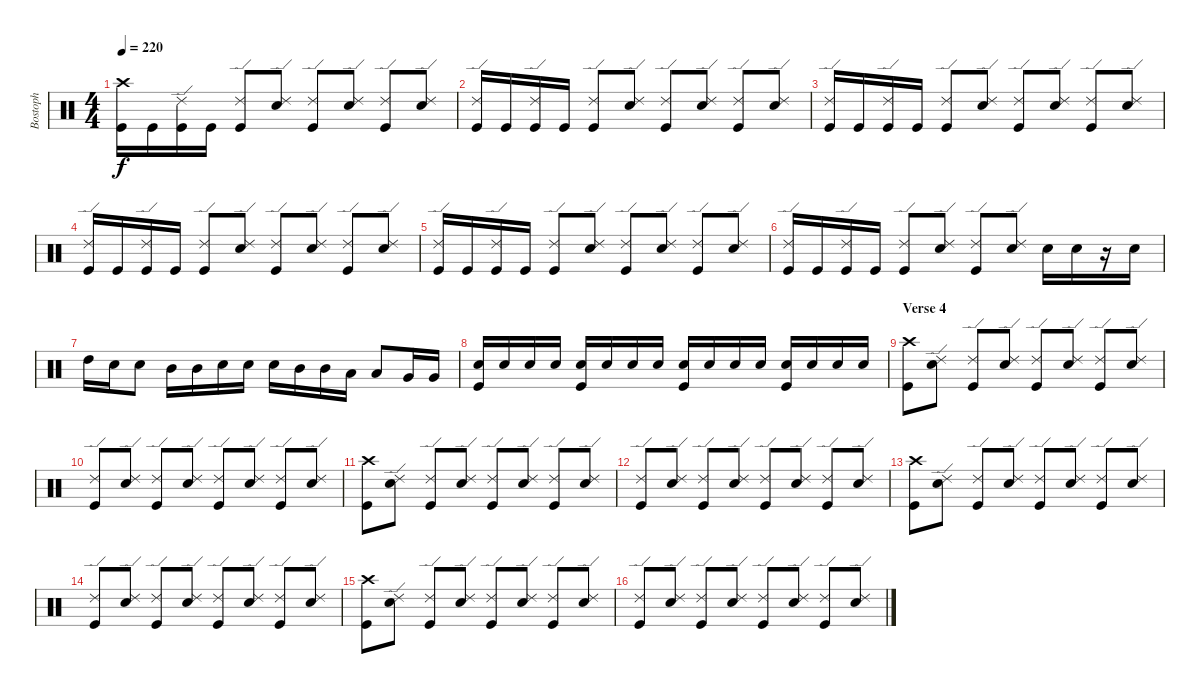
\track ("Bostoph" "Bostoph") {instrument percussion}
\staff {score}
\articulation defaults
\ts (4 4)
\tempo 220
\clef neutral
\ks c
("Crash high (hit)" "Kick (hit)").16{dy f} "Kick (hit)".16 ("Ride (edge) 2" "Kick (hit)").16 "Kick (hit)".16 ("Ride (edge) 2" "Kick (hit)").8 ("Ride (edge) 2" "Snare (hit) 2").8 ("Ride (edge) 2" "Kick (hit)").8 ("Ride (edge) 2" "Snare (hit) 2").8 ("Ride (edge) 2" "Kick (hit)").8 ("Ride (edge) 2" "Snare (hit) 2").8 |
("Ride (edge) 2" "Kick (hit)").16 "Kick (hit)".16 ("Ride (edge) 2" "Kick (hit)").16 "Kick (hit)".16 ("Ride (edge) 2" "Kick (hit)").8 ("Ride (edge) 2" "Snare (hit) 2").8 ("Ride (edge) 2" "Kick (hit)").8 ("Ride (edge) 2" "Snare (hit) 2").8 ("Ride (edge) 2" "Kick (hit)").8 ("Ride (edge) 2" "Snare (hit) 2").8 |
("Ride (edge) 2" "Kick (hit)").16 "Kick (hit)".16 ("Ride (edge) 2" "Kick (hit)").16 "Kick (hit)".16 ("Ride (edge) 2" "Kick (hit)").8 ("Ride (edge) 2" "Snare (hit) 2").8 ("Ride (edge) 2" "Kick (hit)").8 ("Ride (edge) 2" "Snare (hit) 2").8 ("Ride (edge) 2" "Kick (hit)").8 ("Ride (edge) 2" "Snare (hit) 2").8 |
("Ride (edge) 2" "Kick (hit)").16 "Kick (hit)".16 ("Ride (edge) 2" "Kick (hit)").16 "Kick (hit)".16 ("Ride (edge) 2" "Kick (hit)").8 ("Ride (edge) 2" "Snare (hit) 2").8 ("Ride (edge) 2" "Kick (hit)").8 ("Ride (edge) 2" "Snare (hit) 2").8 ("Ride (edge) 2" "Kick (hit)").8 ("Ride (edge) 2" "Snare (hit) 2").8 |
("Ride (edge) 2" "Kick (hit)").16 "Kick (hit)".16 ("Ride (edge) 2" "Kick (hit)").16 "Kick (hit)".16 ("Ride (edge) 2" "Kick (hit)").8 ("Ride (edge) 2" "Snare (hit) 2").8 ("Ride (edge) 2" "Kick (hit)").8 ("Ride (edge) 2" "Snare (hit) 2").8 ("Ride (edge) 2" "Kick (hit)").8 ("Ride (edge) 2" "Snare (hit) 2").8 |
("Ride (edge) 2" "Kick (hit)").16 "Kick (hit)".16 ("Ride (edge) 2" "Kick (hit)").16 "Kick (hit)".16 ("Ride (edge) 2" "Kick (hit)").8 ("Ride (edge) 2" "Snare (hit) 2").8 ("Ride (edge) 2" "Kick (hit)").8 ("Ride (edge) 2" "Snare (hit) 2").8 "Snare (hit) 2".16 "Snare (hit) 2".16 r.16 "Snare (hit) 2".16 |
"High Tom (hit)".16 "Snare (hit) 2".16 "Snare (hit) 2".8 "Mid Tom (hit)".16 "Mid Tom (hit)".16 "Snare (hit) 2".16 "Snare (hit) 2".16 "Snare (hit) 2".16 "Mid Tom (hit)".16 "Mid Tom (hit)".16 "Low Tom (hit)".16 "Low Tom (hit)".8 "Very Low Tom (hit)".16 "Very Low Tom (hit)".16 |
("Snare (hit) 2" "Kick (hit)").16 "Snare (hit) 2".16 "Snare (hit) 2".16 "Snare (hit) 2".16 ("Snare (hit) 2" "Kick (hit)").16 "Snare (hit) 2".16 "Snare (hit) 2".16 "Snare (hit) 2".16 ("Snare (hit) 2" "Kick (hit)").16 "Snare (hit) 2".16 "Snare (hit) 2".16 "Snare (hit) 2".16 ("Snare (hit) 2" "Kick (hit)").16 "Snare (hit) 2".16 "Snare (hit) 2".16 "Snare (hit) 2".16 |
\section ("" "Verse 4")
("Crash high (hit)" "Kick (hit)").8 ("Ride (edge) 2" "Snare (hit) 2").8 ("Ride (edge) 2" "Kick (hit)").8 ("Ride (edge) 2" "Snare (hit) 2").8 ("Ride (edge) 2" "Kick (hit)").8 ("Ride (edge) 2" "Snare (hit) 2").8 ("Ride (edge) 2" "Kick (hit)").8 ("Ride (edge) 2" "Snare (hit) 2").8 |
("Ride (edge) 2" "Kick (hit)").8 ("Ride (edge) 2" "Snare (hit) 2").8 ("Ride (edge) 2" "Kick (hit)").8 ("Ride (edge) 2" "Snare (hit) 2").8 ("Ride (edge) 2" "Kick (hit)").8 ("Ride (edge) 2" "Snare (hit) 2").8 ("Ride (edge) 2" "Kick (hit)").8 ("Ride (edge) 2" "Snare (hit) 2").8 |
("Crash high (hit)" "Kick (hit)").8 ("Ride (edge) 2" "Snare (hit) 2").8 ("Ride (edge) 2" "Kick (hit)").8 ("Ride (edge) 2" "Snare (hit) 2").8 ("Ride (edge) 2" "Kick (hit)").8 ("Ride (edge) 2" "Snare (hit) 2").8 ("Ride (edge) 2" "Kick (hit)").8 ("Ride (edge) 2" "Snare (hit) 2").8 |
("Ride (edge) 2" "Kick (hit)").8 ("Ride (edge) 2" "Snare (hit) 2").8 ("Ride (edge) 2" "Kick (hit)").8 ("Ride (edge) 2" "Snare (hit) 2").8 ("Ride (edge) 2" "Kick (hit)").8 ("Ride (edge) 2" "Snare (hit) 2").8 ("Ride (edge) 2" "Kick (hit)").8 ("Ride (edge) 2" "Snare (hit) 2").8 |
("Crash high (hit)" "Kick (hit)").8 ("Ride (edge) 2" "Snare (hit) 2").8 ("Ride (edge) 2" "Kick (hit)").8 ("Ride (edge) 2" "Snare (hit) 2").8 ("Ride (edge) 2" "Kick (hit)").8 ("Ride (edge) 2" "Snare (hit) 2").8 ("Ride (edge) 2" "Kick (hit)").8 ("Ride (edge) 2" "Snare (hit) 2").8 |
("Ride (edge) 2" "Kick (hit)").8 ("Ride (edge) 2" "Snare (hit) 2").8 ("Ride (edge) 2" "Kick (hit)").8 ("Ride (edge) 2" "Snare (hit) 2").8 ("Ride (edge) 2" "Kick (hit)").8 ("Ride (edge) 2" "Snare (hit) 2").8 ("Ride (edge) 2" "Kick (hit)").8 ("Ride (edge) 2" "Snare (hit) 2").8 |
("Crash high (hit)" "Kick (hit)").8 ("Ride (edge) 2" "Snare (hit) 2").8 ("Ride (edge) 2" "Kick (hit)").8 ("Ride (edge) 2" "Snare (hit) 2").8 ("Ride (edge) 2" "Kick (hit)").8 ("Ride (edge) 2" "Snare (hit) 2").8 ("Ride (edge) 2" "Kick (hit)").8 ("Ride (edge) 2" "Snare (hit) 2").8 |
("Ride (edge) 2" "Kick (hit)").8 ("Ride (edge) 2" "Snare (hit) 2").8 ("Ride (edge) 2" "Kick (hit)").8 ("Ride (edge) 2" "Snare (hit) 2").8 ("Ride (edge) 2" "Kick (hit)").8 ("Ride (edge) 2" "Snare (hit) 2").8 ("Ride (edge) 2" "Kick (hit)").8 ("Ride (edge) 2" "Snare (hit) 2").8
